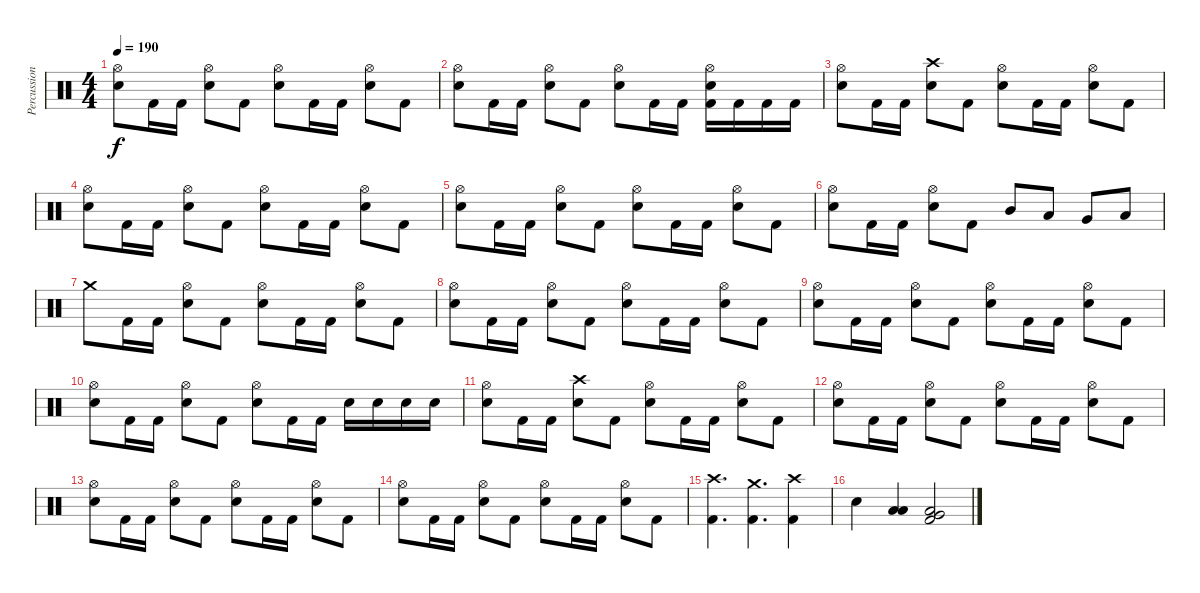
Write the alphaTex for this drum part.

\track ("Percussions" "Percussion") {instrument percussion}
\staff {score}
\articulation defaults
\ts (4 4)
\tempo 190
\clef neutral
\ks c
("Hi-Hat (open)" "Electric Snare (hit)").8{dy f} "Kick (hit) 2".16 "Kick (hit) 2".16 ("Hi-Hat (open)" "Electric Snare (hit)").8 "Kick (hit) 2".8 ("Hi-Hat (open)" "Electric Snare (hit)").8 "Kick (hit) 2".16 "Kick (hit) 2".16 ("Hi-Hat (open)" "Electric Snare (hit)").8 "Kick (hit) 2".8 |
("Hi-Hat (open)" "Electric Snare (hit)").8 "Kick (hit) 2".16 "Kick (hit) 2".16 ("Hi-Hat (open)" "Electric Snare (hit)").8 "Kick (hit) 2".8 ("Hi-Hat (open)" "Electric Snare (hit)").8 "Kick (hit) 2".16 "Kick (hit) 2".16 ("Hi-Hat (open)" "Electric Snare (hit)" "Kick (hit) 2").16 "Kick (hit) 2".16 "Kick (hit) 2".16 "Kick (hit) 2".16 |
("Hi-Hat (open)" "Electric Snare (hit)").8 "Kick (hit) 2".16 "Kick (hit) 2".16 ("Crash high (hit)" "Electric Snare (hit)").8 "Kick (hit) 2".8 ("Hi-Hat (open)" "Electric Snare (hit)").8 "Kick (hit) 2".16 "Kick (hit) 2".16 ("Hi-Hat (open)" "Electric Snare (hit)").8 "Kick (hit) 2".8 |
("Hi-Hat (open)" "Electric Snare (hit)").8 "Kick (hit) 2".16 "Kick (hit) 2".16 ("Hi-Hat (open)" "Electric Snare (hit)").8 "Kick (hit) 2".8 ("Hi-Hat (open)" "Electric Snare (hit)").8 "Kick (hit) 2".16 "Kick (hit) 2".16 ("Hi-Hat (open)" "Electric Snare (hit)").8 "Kick (hit) 2".8 |
("Hi-Hat (open)" "Electric Snare (hit)").8 "Kick (hit) 2".16 "Kick (hit) 2".16 ("Hi-Hat (open)" "Electric Snare (hit)").8 "Kick (hit) 2".8 ("Hi-Hat (open)" "Electric Snare (hit)").8 "Kick (hit) 2".16 "Kick (hit) 2".16 ("Hi-Hat (open)" "Electric Snare (hit)").8 "Kick (hit) 2".8 |
("Hi-Hat (open)" "Electric Snare (hit)").8 "Kick (hit) 2".16 "Kick (hit) 2".16 ("Hi-Hat (open)" "Electric Snare (hit)").8 "Kick (hit) 2".8 "Mid Tom (hit)".8 "Low Tom (hit)".8 "Very Low Tom (hit)".8 "Low Floor Tom (hit)".8 |
"Crash medium (hit)".8 "Kick (hit) 2".16 "Kick (hit) 2".16 ("Hi-Hat (open)" "Electric Snare (hit)").8 "Kick (hit) 2".8 ("Hi-Hat (open)" "Electric Snare (hit)").8 "Kick (hit) 2".16 "Kick (hit) 2".16 ("Hi-Hat (open)" "Electric Snare (hit)").8 "Kick (hit) 2".8 |
("Hi-Hat (open)" "Electric Snare (hit)").8 "Kick (hit) 2".16 "Kick (hit) 2".16 ("Hi-Hat (open)" "Electric Snare (hit)").8 "Kick (hit) 2".8 ("Hi-Hat (open)" "Electric Snare (hit)").8 "Kick (hit) 2".16 "Kick (hit) 2".16 ("Hi-Hat (open)" "Electric Snare (hit)").8 "Kick (hit) 2".8 |
("Hi-Hat (open)" "Electric Snare (hit)").8 "Kick (hit) 2".16 "Kick (hit) 2".16 ("Hi-Hat (open)" "Electric Snare (hit)").8 "Kick (hit) 2".8 ("Hi-Hat (open)" "Electric Snare (hit)").8 "Kick (hit) 2".16 "Kick (hit) 2".16 ("Hi-Hat (open)" "Electric Snare (hit)").8 "Kick (hit) 2".8 |
("Hi-Hat (open)" "Electric Snare (hit)").8 "Kick (hit) 2".16 "Kick (hit) 2".16 ("Hi-Hat (open)" "Electric Snare (hit)").8 "Kick (hit) 2".8 ("Hi-Hat (open)" "Electric Snare (hit)").8 "Kick (hit) 2".16 "Kick (hit) 2".16 "Electric Snare (hit)".16 "Electric Snare (hit)".16 "Electric Snare (hit)".16 "Electric Snare (hit)".16 |
("Hi-Hat (open)" "Electric Snare (hit)").8 "Kick (hit) 2".16 "Kick (hit) 2".16 ("Crash high (hit)" "Electric Snare (hit)").8 "Kick (hit) 2".8 ("Hi-Hat (open)" "Electric Snare (hit)").8 "Kick (hit) 2".16 "Kick (hit) 2".16 ("Hi-Hat (open)" "Electric Snare (hit)").8 "Kick (hit) 2".8 |
("Hi-Hat (open)" "Electric Snare (hit)").8 "Kick (hit) 2".16 "Kick (hit) 2".16 ("Hi-Hat (open)" "Electric Snare (hit)").8 "Kick (hit) 2".8 ("Hi-Hat (open)" "Electric Snare (hit)").8 "Kick (hit) 2".16 "Kick (hit) 2".16 ("Hi-Hat (open)" "Electric Snare (hit)").8 "Kick (hit) 2".8 |
("Hi-Hat (open)" "Electric Snare (hit)").8 "Kick (hit) 2".16 "Kick (hit) 2".16 ("Hi-Hat (open)" "Electric Snare (hit)").8 "Kick (hit) 2".8 ("Hi-Hat (open)" "Electric Snare (hit)").8 "Kick (hit) 2".16 "Kick (hit) 2".16 ("Hi-Hat (open)" "Electric Snare (hit)").8 "Kick (hit) 2".8 |
("Hi-Hat (open)" "Electric Snare (hit)").8 "Kick (hit) 2".16 "Kick (hit) 2".16 ("Hi-Hat (open)" "Electric Snare (hit)").8 "Kick (hit) 2".8 ("Hi-Hat (open)" "Electric Snare (hit)").8 "Kick (hit) 2".16 "Kick (hit) 2".16 ("Hi-Hat (open)" "Electric Snare (hit)").8 "Kick (hit) 2".8 |
("Crash high (hit)" "Kick (hit) 2").4{d} ("Crash medium (hit)" "Kick (hit) 2").4{d} ("Crash high (hit)" "Kick (hit) 2").4 |
"Electric Snare (hit)".4 ("Low Tom (hit)" "Low Floor Tom (hit)").4 ("Very Low Tom (hit)" "Low Floor Tom (hit)" "Kick (hit) 2").2
